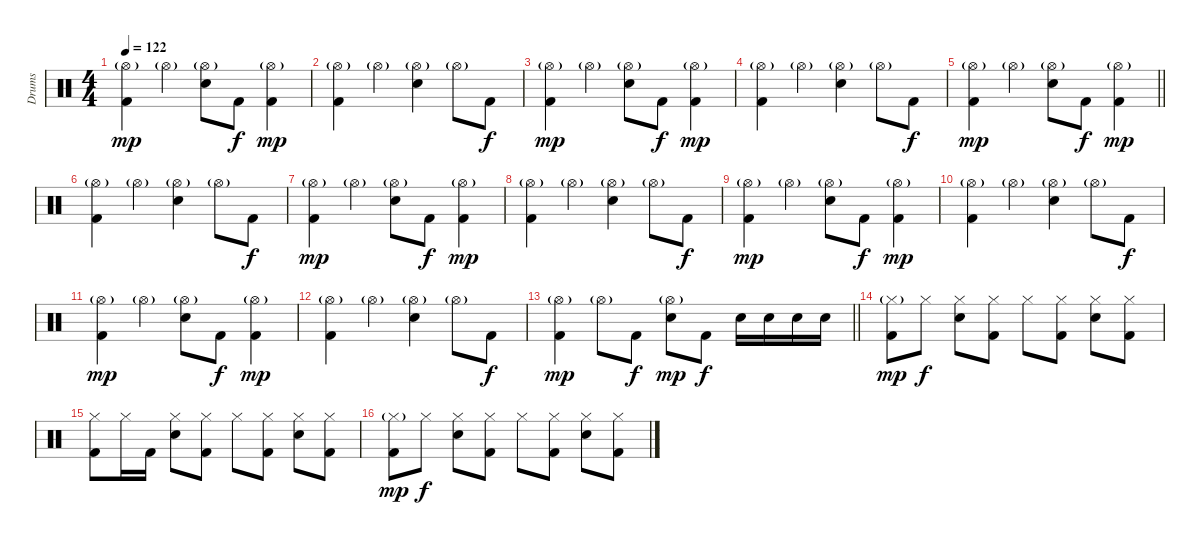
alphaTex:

\track ("Drums" "Drums") {instrument percussion}
\staff {score}
\articulation defaults
\ts (4 4)
\tempo 122
\clef neutral
\ks c
("Hi-Hat (open)"{g} "Kick (hit) 2").4{dy mp} "Hi-Hat (open)"{g}.4 ("Hi-Hat (open)"{g} "Electric Snare (hit)").8 "Kick (hit) 2".8{dy f} ("Hi-Hat (open)"{g} "Kick (hit) 2").4{dy mp} |
("Hi-Hat (open)"{g} "Kick (hit) 2").4 "Hi-Hat (open)"{g}.4 ("Hi-Hat (open)"{g} "Electric Snare (hit)").4 "Hi-Hat (open)"{g}.8 "Kick (hit) 2".8{dy f} |
("Hi-Hat (open)"{g} "Kick (hit) 2").4{dy mp} "Hi-Hat (open)"{g}.4 ("Hi-Hat (open)"{g} "Electric Snare (hit)").8 "Kick (hit) 2".8{dy f} ("Hi-Hat (open)"{g} "Kick (hit) 2").4{dy mp} |
("Hi-Hat (open)"{g} "Kick (hit) 2").4 "Hi-Hat (open)"{g}.4 ("Hi-Hat (open)"{g} "Electric Snare (hit)").4 "Hi-Hat (open)"{g}.8 "Kick (hit) 2".8{dy f} |
\barLineRight lightlight
("Hi-Hat (open)"{g} "Kick (hit) 2").4{dy mp} "Hi-Hat (open)"{g}.4 ("Hi-Hat (open)"{g} "Electric Snare (hit)").8 "Kick (hit) 2".8{dy f} ("Hi-Hat (open)"{g} "Kick (hit) 2").4{dy mp} |
("Hi-Hat (open)"{g} "Kick (hit) 2").4 "Hi-Hat (open)"{g}.4 ("Hi-Hat (open)"{g} "Electric Snare (hit)").4 "Hi-Hat (open)"{g}.8 "Kick (hit) 2".8{dy f} |
("Hi-Hat (open)"{g} "Kick (hit) 2").4{dy mp} "Hi-Hat (open)"{g}.4 ("Hi-Hat (open)"{g} "Electric Snare (hit)").8 "Kick (hit) 2".8{dy f} ("Hi-Hat (open)"{g} "Kick (hit) 2").4{dy mp} |
("Hi-Hat (open)"{g} "Kick (hit) 2").4 "Hi-Hat (open)"{g}.4 ("Hi-Hat (open)"{g} "Electric Snare (hit)").4 "Hi-Hat (open)"{g}.8 "Kick (hit) 2".8{dy f} |
("Hi-Hat (open)"{g} "Kick (hit) 2").4{dy mp} "Hi-Hat (open)"{g}.4 ("Hi-Hat (open)"{g} "Electric Snare (hit)").8 "Kick (hit) 2".8{dy f} ("Hi-Hat (open)"{g} "Kick (hit) 2").4{dy mp} |
("Hi-Hat (open)"{g} "Kick (hit) 2").4 "Hi-Hat (open)"{g}.4 ("Hi-Hat (open)"{g} "Electric Snare (hit)").4 "Hi-Hat (open)"{g}.8 "Kick (hit) 2".8{dy f} |
("Hi-Hat (open)"{g} "Kick (hit) 2").4{dy mp} "Hi-Hat (open)"{g}.4 ("Hi-Hat (open)"{g} "Electric Snare (hit)").8 "Kick (hit) 2".8{dy f} ("Hi-Hat (open)"{g} "Kick (hit) 2").4{dy mp} |
("Hi-Hat (open)"{g} "Kick (hit) 2").4 "Hi-Hat (open)"{g}.4 ("Hi-Hat (open)"{g} "Electric Snare (hit)").4 "Hi-Hat (open)"{g}.8 "Kick (hit) 2".8{dy f} |
\barLineRight lightlight
("Hi-Hat (open)"{g} "Kick (hit) 2").4{dy mp} "Hi-Hat (open)"{g}.8 "Kick (hit) 2".8{dy f} ("Hi-Hat (open)"{g} "Electric Snare (hit)").8{dy mp} "Kick (hit) 2".8{dy f} "Electric Snare (hit)".16 "Electric Snare (hit)".16 "Electric Snare (hit)".16 "Electric Snare (hit)".16 |
("Hi-Hat (closed)"{g} "Kick (hit) 2").8{dy mp} "Hi-Hat (closed)".8{dy f} ("Hi-Hat (closed)" "Electric Snare (hit)").8 ("Hi-Hat (closed)" "Kick (hit) 2").8 "Hi-Hat (closed)".8 ("Hi-Hat (closed)" "Kick (hit) 2").8 ("Hi-Hat (closed)" "Electric Snare (hit)").8 ("Hi-Hat (closed)" "Kick (hit) 2").8 |
("Hi-Hat (closed)" "Kick (hit) 2").8 "Hi-Hat (closed)".16 "Kick (hit) 2".16 ("Hi-Hat (closed)" "Electric Snare (hit)").8 ("Hi-Hat (closed)" "Kick (hit) 2").8 "Hi-Hat (closed)".8 ("Hi-Hat (closed)" "Kick (hit) 2").8 ("Hi-Hat (closed)" "Electric Snare (hit)").8 ("Hi-Hat (closed)" "Kick (hit) 2").8 |
("Hi-Hat (closed)"{g} "Kick (hit) 2").8{dy mp} "Hi-Hat (closed)".8{dy f} ("Hi-Hat (closed)" "Electric Snare (hit)").8 ("Hi-Hat (closed)" "Kick (hit) 2").8 "Hi-Hat (closed)".8 ("Hi-Hat (closed)" "Kick (hit) 2").8 ("Hi-Hat (closed)" "Electric Snare (hit)").8 ("Hi-Hat (closed)" "Kick (hit) 2").8
